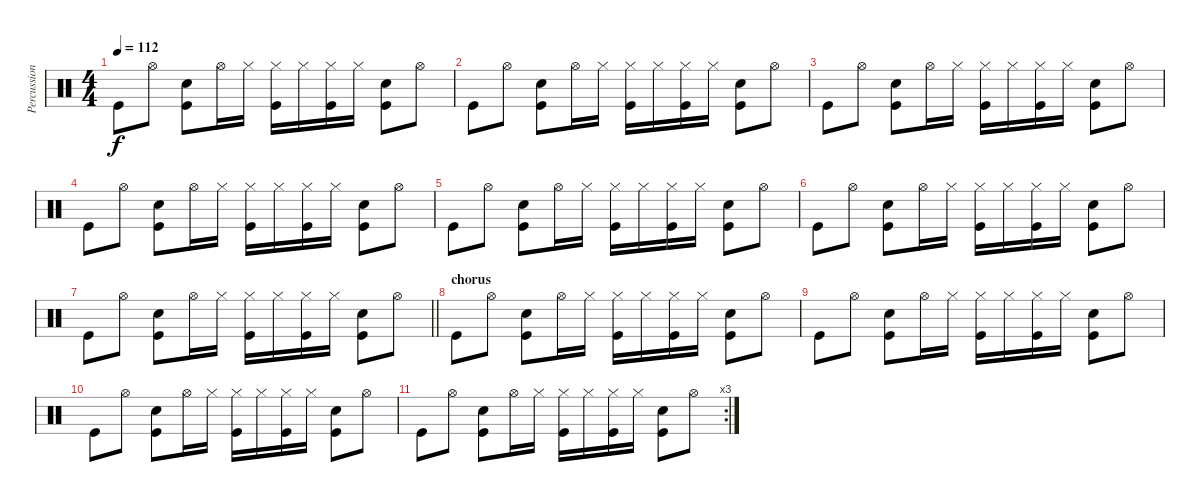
\track ("Percussion" "Percussion") {instrument percussion}
\staff {score}
\articulation defaults
\ts (4 4)
\tempo 112
\clef neutral
\ks c "Kick (hit)".8{dy f} "Hi-Hat (open)".8
("Snare (hit) 2" "Kick (hit)").8 "Hi-Hat (open)".16 "Hi-Hat (closed)".16 ("Hi-Hat (closed)" "Kick (hit)").16 "Hi-Hat (closed)".16 ("Hi-Hat (closed)" "Kick (hit)").16 "Hi-Hat (closed)".16 ("Snare (hit) 2" "Kick (hit)").8 "Hi-Hat (open)".8 |
"Kick (hit)".8 "Hi-Hat (open)".8 ("Snare (hit) 2" "Kick (hit)").8 "Hi-Hat (open)".16 "Hi-Hat (closed)".16 ("Hi-Hat (closed)" "Kick (hit)").16 "Hi-Hat (closed)".16 ("Hi-Hat (closed)" "Kick (hit)").16 "Hi-Hat (closed)".16 ("Snare (hit) 2" "Kick (hit)").8 "Hi-Hat (open)".8 |
"Kick (hit)".8 "Hi-Hat (open)".8 ("Snare (hit) 2" "Kick (hit)").8 "Hi-Hat (open)".16 "Hi-Hat (closed)".16 ("Hi-Hat (closed)" "Kick (hit)").16 "Hi-Hat (closed)".16 ("Hi-Hat (closed)" "Kick (hit)").16 "Hi-Hat (closed)".16 ("Snare (hit) 2" "Kick (hit)").8 "Hi-Hat (open)".8 |
"Kick (hit)".8 "Hi-Hat (open)".8 ("Snare (hit) 2" "Kick (hit)").8 "Hi-Hat (open)".16 "Hi-Hat (closed)".16 ("Hi-Hat (closed)" "Kick (hit)").16 "Hi-Hat (closed)".16 ("Hi-Hat (closed)" "Kick (hit)").16 "Hi-Hat (closed)".16 ("Snare (hit) 2" "Kick (hit)").8 "Hi-Hat (open)".8 |
"Kick (hit)".8 "Hi-Hat (open)".8 ("Snare (hit) 2" "Kick (hit)").8 "Hi-Hat (open)".16 "Hi-Hat (closed)".16 ("Hi-Hat (closed)" "Kick (hit)").16 "Hi-Hat (closed)".16 ("Hi-Hat (closed)" "Kick (hit)").16 "Hi-Hat (closed)".16 ("Snare (hit) 2" "Kick (hit)").8 "Hi-Hat (open)".8 |
"Kick (hit)".8 "Hi-Hat (open)".8 ("Snare (hit) 2" "Kick (hit)").8 "Hi-Hat (open)".16 "Hi-Hat (closed)".16 ("Hi-Hat (closed)" "Kick (hit)").16 "Hi-Hat (closed)".16 ("Hi-Hat (closed)" "Kick (hit)").16 "Hi-Hat (closed)".16 ("Snare (hit) 2" "Kick (hit)").8 "Hi-Hat (open)".8 |
\barLineRight lightlight "Kick (hit)".8 "Hi-Hat (open)".8
("Snare (hit) 2" "Kick (hit)").8 "Hi-Hat (open)".16 "Hi-Hat (closed)".16 ("Hi-Hat (closed)" "Kick (hit)").16 "Hi-Hat (closed)".16 ("Hi-Hat (closed)" "Kick (hit)").16 "Hi-Hat (closed)".16 ("Snare (hit) 2" "Kick (hit)").8 "Hi-Hat (open)".8 |
\section ("" "chorus")
"Kick (hit)".8 "Hi-Hat (open)".8 ("Snare (hit) 2" "Kick (hit)").8 "Hi-Hat (open)".16 "Hi-Hat (closed)".16 ("Hi-Hat (closed)" "Kick (hit)").16 "Hi-Hat (closed)".16 ("Hi-Hat (closed)" "Kick (hit)").16 "Hi-Hat (closed)".16 ("Snare (hit) 2" "Kick (hit)").8 "Hi-Hat (open)".8 |
"Kick (hit)".8 "Hi-Hat (open)".8 ("Snare (hit) 2" "Kick (hit)").8 "Hi-Hat (open)".16 "Hi-Hat (closed)".16 ("Hi-Hat (closed)" "Kick (hit)").16 "Hi-Hat (closed)".16 ("Hi-Hat (closed)" "Kick (hit)").16 "Hi-Hat (closed)".16 ("Snare (hit) 2" "Kick (hit)").8 "Hi-Hat (open)".8 |
"Kick (hit)".8 "Hi-Hat (open)".8 ("Snare (hit) 2" "Kick (hit)").8 "Hi-Hat (open)".16 "Hi-Hat (closed)".16 ("Hi-Hat (closed)" "Kick (hit)").16 "Hi-Hat (closed)".16 ("Hi-Hat (closed)" "Kick (hit)").16 "Hi-Hat (closed)".16 ("Snare (hit) 2" "Kick (hit)").8 "Hi-Hat (open)".8 |
\rc 3 "Kick (hit)".8 "Hi-Hat (open)".8
("Snare (hit) 2" "Kick (hit)").8 "Hi-Hat (open)".16 "Hi-Hat (closed)".16 ("Hi-Hat (closed)" "Kick (hit)").16 "Hi-Hat (closed)".16 ("Hi-Hat (closed)" "Kick (hit)").16 "Hi-Hat (closed)".16 ("Snare (hit) 2" "Kick (hit)").8 "Hi-Hat (open)".8
